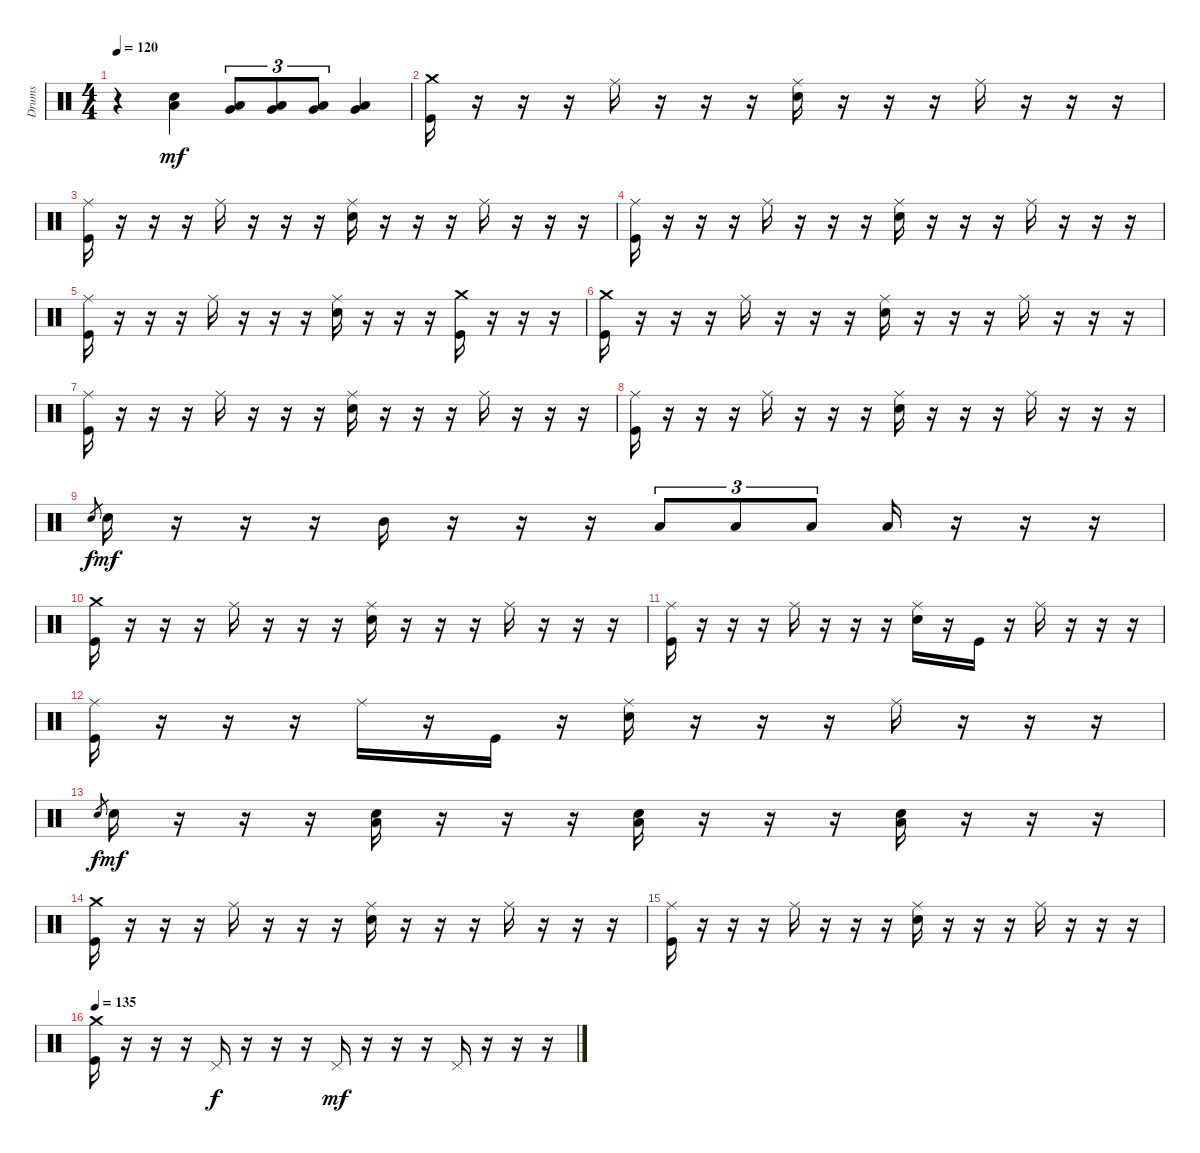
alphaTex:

\track ("Drums" "Drums") {instrument percussion}
\staff {score}
\articulation defaults
\ts (4 4)
\tempo 120
\clef neutral
\ks c
r.4{dy mf} ("Low Tom (hit)" "Electric Snare (hit)").4 ("Very Low Tom (hit)" "Low Floor Tom (hit)").8{tu (3 2)} ("Very Low Tom (hit)" "Low Floor Tom (hit)").8{tu (3 2)} ("Very Low Tom (hit)" "Low Floor Tom (hit)").8{tu (3 2)} ("Very Low Tom (hit)" "Low Floor Tom (hit)").4 |
("Crash medium (hit)" "Kick (hit)").16 r.16 r.16 r.16 "Ride (middle)".16 r.16 r.16 r.16 ("Ride (middle)" "Electric Snare (hit)").16 r.16 r.16 r.16 "Ride (middle)".16 r.16 r.16 r.16 |
("Ride (middle)" "Kick (hit)").16 r.16 r.16 r.16 "Ride (middle)".16 r.16 r.16 r.16 ("Ride (middle)" "Electric Snare (hit)").16 r.16 r.16 r.16 "Ride (middle)".16 r.16 r.16 r.16 |
("Ride (middle)" "Kick (hit)").16 r.16 r.16 r.16 "Ride (middle)".16 r.16 r.16 r.16 ("Ride (middle)" "Electric Snare (hit)").16 r.16 r.16 r.16 "Ride (middle)".16 r.16 r.16 r.16 |
("Ride (middle)" "Kick (hit)").16 r.16 r.16 r.16 "Ride (middle)".16 r.16 r.16 r.16 ("Ride (middle)" "Electric Snare (hit)").16 r.16 r.16 r.16 ("Crash medium (hit)" "Kick (hit)").16 r.16 r.16 r.16 |
("Crash medium (hit)" "Kick (hit)").16 r.16 r.16 r.16 "Ride (middle)".16 r.16 r.16 r.16 ("Ride (middle)" "Electric Snare (hit)").16 r.16 r.16 r.16 "Ride (middle)".16 r.16 r.16 r.16 |
("Ride (middle)" "Kick (hit)").16 r.16 r.16 r.16 "Ride (middle)".16 r.16 r.16 r.16 ("Ride (middle)" "Electric Snare (hit)").16 r.16 r.16 r.16 "Ride (middle)".16 r.16 r.16 r.16 |
("Ride (middle)" "Kick (hit)").16 r.16 r.16 r.16 "Ride (middle)".16 r.16 r.16 r.16 ("Ride (middle)" "Electric Snare (hit)").16 r.16 r.16 r.16 "Ride (middle)".16 r.16 r.16 r.16 |
"Electric Snare (hit)".8{gr dy f} "Electric Snare (hit)".16{dy mf} r.16 r.16 r.16 "Mid Tom (hit)".16 r.16 r.16 r.16 "Low Tom (hit)".8{tu (3 2)} "Low Tom (hit)".8{tu (3 2)} "Low Tom (hit)".8{tu (3 2)} "Low Tom (hit)".16 r.16 r.16 r.16 |
("Crash medium (hit)" "Kick (hit)").16 r.16 r.16 r.16 "Ride (middle)".16 r.16 r.16 r.16 ("Ride (middle)" "Electric Snare (hit)").16 r.16 r.16 r.16 "Ride (middle)".16 r.16 r.16 r.16 |
("Ride (middle)" "Kick (hit)").16 r.16 r.16 r.16 "Ride (middle)".16 r.16 r.16 r.16 ("Ride (middle)" "Electric Snare (hit)").16 r.16 "Kick (hit)".16 r.16 "Ride (middle)".16 r.16 r.16 r.16 |
("Ride (middle)" "Kick (hit)").16 r.16 r.16 r.16 "Ride (middle)".16 r.16 "Kick (hit)".16 r.16 ("Ride (middle)" "Electric Snare (hit)").16 r.16 r.16 r.16 "Ride (middle)".16 r.16 r.16 r.16 |
"Electric Snare (hit)".8{gr dy f} "Electric Snare (hit)".16{dy mf} r.16 r.16 r.16 ("Low Floor Tom (hit)" "Electric Snare (hit)").16 r.16 r.16 r.16 ("Low Floor Tom (hit)" "Electric Snare (hit)").16 r.16 r.16 r.16 ("Low Floor Tom (hit)" "Electric Snare (hit)").16 r.16 r.16 r.16 |
("Crash medium (hit)" "Kick (hit)").16 r.16 r.16 r.16 "Ride (middle)".16 r.16 r.16 r.16 ("Ride (middle)" "Electric Snare (hit)").16 r.16 r.16 r.16 "Ride (middle)".16 r.16 r.16 r.16 |
("Ride (middle)" "Kick (hit)").16 r.16 r.16 r.16 "Ride (middle)".16 r.16 r.16 r.16 ("Ride (middle)" "Electric Snare (hit)").16 r.16 r.16 r.16 "Ride (middle)".16 r.16 r.16 r.16 |
\tempo 135
("Crash medium (hit)" "Kick (hit)").16 r.16 r.16 r.16 "Pedal Hi-Hat (hit)".16{dy f} r.16 r.16 r.16 "Pedal Hi-Hat (hit)".16{dy mf} r.16 r.16 r.16 "Pedal Hi-Hat (hit)".16 r.16 r.16 r.16
